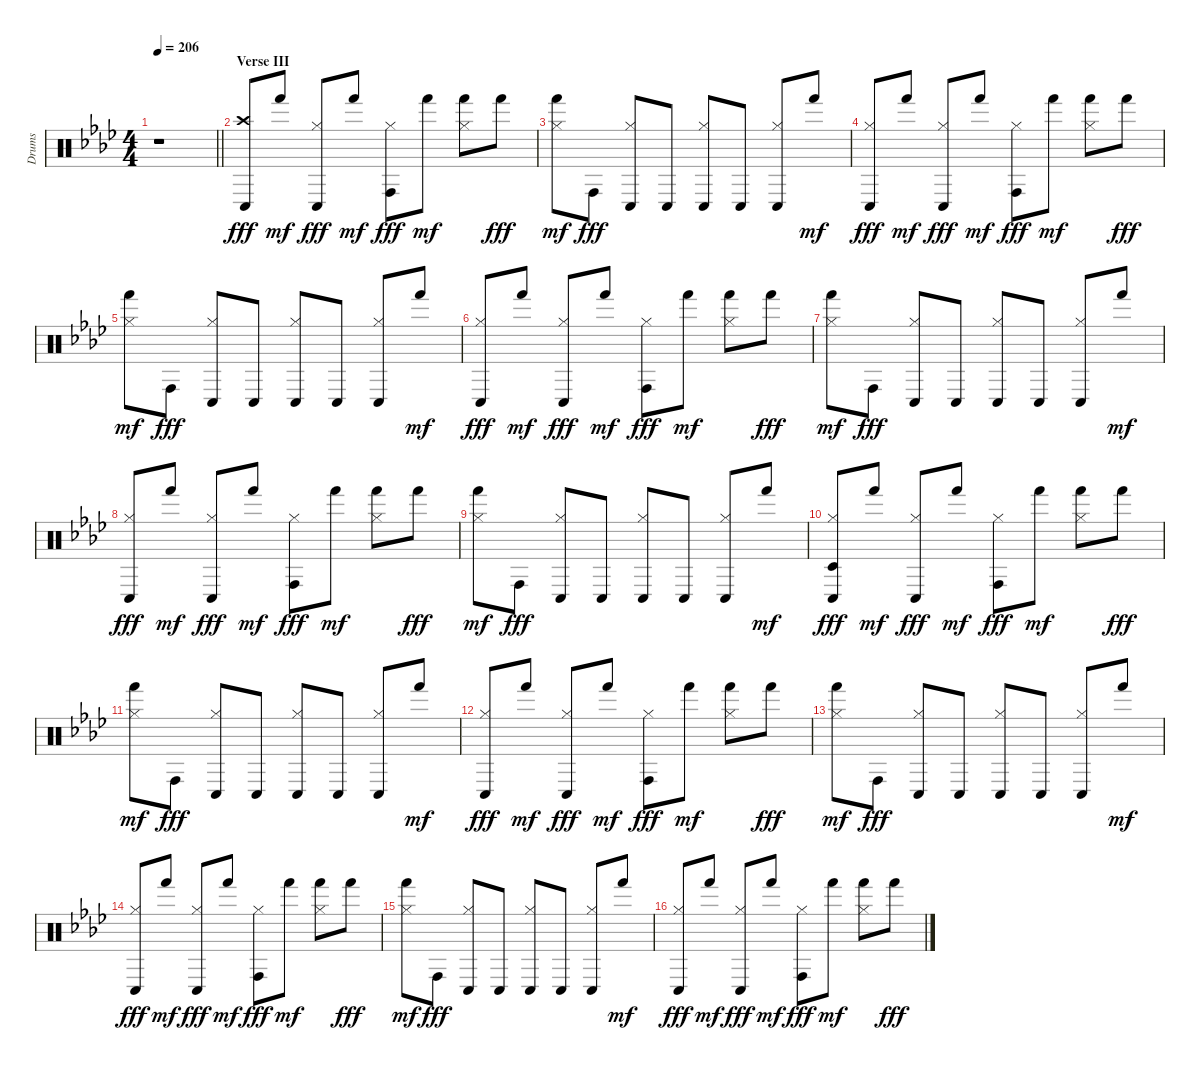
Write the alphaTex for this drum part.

\track ("Drums" "Drums") {instrument percussion}
\staff {score}
\articulation defaults
\ts (4 4)
\tempo 206
\clef neutral
\barLineRight lightlight
\ks ab
r.1{dy fff} |
\section ("" "Verse III")
("Crash high (hit)" "Conga low (hit)").8 "Hand (hit)".8{dy mf} ("Hi-Hat (closed)" "Conga low (hit)").8{dy fff} "Hand (hit)".8{dy mf} ("Hi-Hat (closed)" "Conga high (hit)").8{dy fff} "Hand (hit)".8{dy mf} ("Hi-Hat (closed)" "Hand (hit)").8 "Hand (hit)".8{dy fff} |
("Hi-Hat (closed)" "Hand (hit)").8{dy mf} "Conga high (hit)".8{dy fff} ("Hi-Hat (closed)" "Conga low (hit)").8 "Conga low (hit)".8 ("Hi-Hat (closed)" "Conga low (hit)").8 "Conga low (hit)".8 ("Hi-Hat (closed)" "Conga low (hit)").8 "Hand (hit)".8{dy mf} |
("Hi-Hat (closed)" "Conga low (hit)").8{dy fff} "Hand (hit)".8{dy mf} ("Hi-Hat (closed)" "Conga low (hit)").8{dy fff} "Hand (hit)".8{dy mf} ("Hi-Hat (closed)" "Conga high (hit)").8{dy fff} "Hand (hit)".8{dy mf} ("Hi-Hat (closed)" "Hand (hit)").8 "Hand (hit)".8{dy fff} |
("Hi-Hat (closed)" "Hand (hit)").8{dy mf} "Conga high (hit)".8{dy fff} ("Hi-Hat (closed)" "Conga low (hit)").8 "Conga low (hit)".8 ("Hi-Hat (closed)" "Conga low (hit)").8 "Conga low (hit)".8 ("Hi-Hat (closed)" "Conga low (hit)").8 "Hand (hit)".8{dy mf} |
("Hi-Hat (closed)" "Conga low (hit)").8{dy fff} "Hand (hit)".8{dy mf} ("Hi-Hat (closed)" "Conga low (hit)").8{dy fff} "Hand (hit)".8{dy mf} ("Hi-Hat (closed)" "Conga high (hit)").8{dy fff} "Hand (hit)".8{dy mf} ("Hi-Hat (closed)" "Hand (hit)").8 "Hand (hit)".8{dy fff} |
("Hi-Hat (closed)" "Hand (hit)").8{dy mf} "Conga high (hit)".8{dy fff} ("Hi-Hat (closed)" "Conga low (hit)").8 "Conga low (hit)".8 ("Hi-Hat (closed)" "Conga low (hit)").8 "Conga low (hit)".8 ("Hi-Hat (closed)" "Conga low (hit)").8 "Hand (hit)".8{dy mf} |
("Hi-Hat (closed)" "Conga low (hit)").8{dy fff} "Hand (hit)".8{dy mf} ("Hi-Hat (closed)" "Conga low (hit)").8{dy fff} "Hand (hit)".8{dy mf} ("Hi-Hat (closed)" "Conga high (hit)").8{dy fff} "Hand (hit)".8{dy mf} ("Hi-Hat (closed)" "Hand (hit)").8 "Hand (hit)".8{dy fff} |
("Hi-Hat (closed)" "Hand (hit)").8{dy mf} "Conga high (hit)".8{dy fff} ("Hi-Hat (closed)" "Conga low (hit)").8 "Conga low (hit)".8 ("Hi-Hat (closed)" "Conga low (hit)").8 "Conga low (hit)".8 ("Hi-Hat (closed)" "Conga low (hit)").8 "Hand (hit)".8{dy mf} |
("Hi-Hat (closed)" "Timbale low (hit)" "Conga low (hit)").8{dy fff} "Hand (hit)".8{dy mf} ("Hi-Hat (closed)" "Conga low (hit)").8{dy fff} "Hand (hit)".8{dy mf} ("Hi-Hat (closed)" "Conga high (hit)").8{dy fff} "Hand (hit)".8{dy mf} ("Hi-Hat (closed)" "Hand (hit)").8 "Hand (hit)".8{dy fff} |
("Hi-Hat (closed)" "Hand (hit)").8{dy mf} "Conga high (hit)".8{dy fff} ("Hi-Hat (closed)" "Conga low (hit)").8 "Conga low (hit)".8 ("Hi-Hat (closed)" "Conga low (hit)").8 "Conga low (hit)".8 ("Hi-Hat (closed)" "Conga low (hit)").8 "Hand (hit)".8{dy mf} |
("Hi-Hat (closed)" "Conga low (hit)").8{dy fff} "Hand (hit)".8{dy mf} ("Hi-Hat (closed)" "Conga low (hit)").8{dy fff} "Hand (hit)".8{dy mf} ("Hi-Hat (closed)" "Conga high (hit)").8{dy fff} "Hand (hit)".8{dy mf} ("Hi-Hat (closed)" "Hand (hit)").8 "Hand (hit)".8{dy fff} |
("Hi-Hat (closed)" "Hand (hit)").8{dy mf} "Conga high (hit)".8{dy fff} ("Hi-Hat (closed)" "Conga low (hit)").8 "Conga low (hit)".8 ("Hi-Hat (closed)" "Conga low (hit)").8 "Conga low (hit)".8 ("Hi-Hat (closed)" "Conga low (hit)").8 "Hand (hit)".8{dy mf} |
("Hi-Hat (closed)" "Conga low (hit)").8{dy fff} "Hand (hit)".8{dy mf} ("Hi-Hat (closed)" "Conga low (hit)").8{dy fff} "Hand (hit)".8{dy mf} ("Hi-Hat (closed)" "Conga high (hit)").8{dy fff} "Hand (hit)".8{dy mf} ("Hi-Hat (closed)" "Hand (hit)").8 "Hand (hit)".8{dy fff} |
("Hi-Hat (closed)" "Hand (hit)").8{dy mf} "Conga high (hit)".8{dy fff} ("Hi-Hat (closed)" "Conga low (hit)").8 "Conga low (hit)".8 ("Hi-Hat (closed)" "Conga low (hit)").8 "Conga low (hit)".8 ("Hi-Hat (closed)" "Conga low (hit)").8 "Hand (hit)".8{dy mf} |
("Hi-Hat (closed)" "Conga low (hit)").8{dy fff} "Hand (hit)".8{dy mf} ("Hi-Hat (closed)" "Conga low (hit)").8{dy fff} "Hand (hit)".8{dy mf} ("Hi-Hat (closed)" "Conga high (hit)").8{dy fff} "Hand (hit)".8{dy mf} ("Hi-Hat (closed)" "Hand (hit)").8 "Hand (hit)".8{dy fff}
